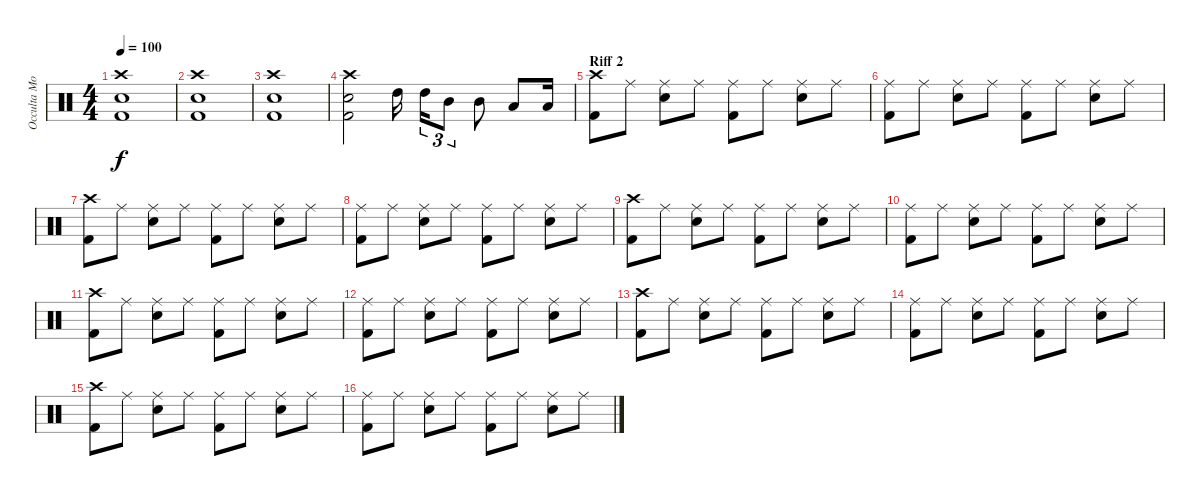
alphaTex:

\track ("Occulta Mors (Drums)" "Occulta Mo") {instrument percussion}
\staff {score}
\articulation defaults
\ts (4 4)
\tempo 100
\clef neutral
\ks c
("Crash high (hit)" "Snare (hit) 2" "Kick (hit) 2").1{dy f} |
("Crash high (hit)" "Snare (hit) 2" "Kick (hit) 2").1 |
("Crash high (hit)" "Snare (hit) 2" "Kick (hit) 2").1 |
("Crash high (hit)" "Snare (hit) 2" "Kick (hit) 2").2 "High Tom (hit)".16 "High Tom (hit)".16{tu (3 2)} "Mid Tom (hit)".8{tu (3 2)} "Mid Tom (hit)".8 "Low Tom (hit)".8 "Low Tom (hit)".16 |
\section ("" "Riff 2")
("Crash high (hit)" "Kick (hit) 2").8 "Ride (middle)".8 ("Ride (middle)" "Snare (hit) 2").8 "Ride (middle)".8 ("Ride (middle)" "Kick (hit) 2").8 "Ride (middle)".8 ("Ride (middle)" "Snare (hit) 2").8 "Ride (middle)".8 |
("Ride (middle)" "Kick (hit) 2").8 "Ride (middle)".8 ("Ride (middle)" "Snare (hit) 2").8 "Ride (middle)".8 ("Ride (middle)" "Kick (hit) 2").8 "Ride (middle)".8 ("Ride (middle)" "Snare (hit) 2").8 "Ride (middle)".8 |
("Crash high (hit)" "Kick (hit) 2").8 "Ride (middle)".8 ("Ride (middle)" "Snare (hit) 2").8 "Ride (middle)".8 ("Ride (middle)" "Kick (hit) 2").8 "Ride (middle)".8 ("Ride (middle)" "Snare (hit) 2").8 "Ride (middle)".8 |
("Ride (middle)" "Kick (hit) 2").8 "Ride (middle)".8 ("Ride (middle)" "Snare (hit) 2").8 "Ride (middle)".8 ("Ride (middle)" "Kick (hit) 2").8 "Ride (middle)".8 ("Ride (middle)" "Snare (hit) 2").8 "Ride (middle)".8 |
("Crash high (hit)" "Kick (hit) 2").8 "Ride (middle)".8 ("Ride (middle)" "Snare (hit) 2").8 "Ride (middle)".8 ("Ride (middle)" "Kick (hit) 2").8 "Ride (middle)".8 ("Ride (middle)" "Snare (hit) 2").8 "Ride (middle)".8 |
("Ride (middle)" "Kick (hit) 2").8 "Ride (middle)".8 ("Ride (middle)" "Snare (hit) 2").8 "Ride (middle)".8 ("Ride (middle)" "Kick (hit) 2").8 "Ride (middle)".8 ("Ride (middle)" "Snare (hit) 2").8 "Ride (middle)".8 |
("Crash high (hit)" "Kick (hit) 2").8 "Ride (middle)".8 ("Ride (middle)" "Snare (hit) 2").8 "Ride (middle)".8 ("Ride (middle)" "Kick (hit) 2").8 "Ride (middle)".8 ("Ride (middle)" "Snare (hit) 2").8 "Ride (middle)".8 |
("Ride (middle)" "Kick (hit) 2").8 "Ride (middle)".8 ("Ride (middle)" "Snare (hit) 2").8 "Ride (middle)".8 ("Ride (middle)" "Kick (hit) 2").8 "Ride (middle)".8 ("Ride (middle)" "Snare (hit) 2").8 "Ride (middle)".8 |
("Crash high (hit)" "Kick (hit) 2").8 "Ride (middle)".8 ("Ride (middle)" "Snare (hit) 2").8 "Ride (middle)".8 ("Ride (middle)" "Kick (hit) 2").8 "Ride (middle)".8 ("Ride (middle)" "Snare (hit) 2").8 "Ride (middle)".8 |
("Ride (middle)" "Kick (hit) 2").8 "Ride (middle)".8 ("Ride (middle)" "Snare (hit) 2").8 "Ride (middle)".8 ("Ride (middle)" "Kick (hit) 2").8 "Ride (middle)".8 ("Ride (middle)" "Snare (hit) 2").8 "Ride (middle)".8 |
("Crash high (hit)" "Kick (hit) 2").8 "Ride (middle)".8 ("Ride (middle)" "Snare (hit) 2").8 "Ride (middle)".8 ("Ride (middle)" "Kick (hit) 2").8 "Ride (middle)".8 ("Ride (middle)" "Snare (hit) 2").8 "Ride (middle)".8 |
("Ride (middle)" "Kick (hit) 2").8 "Ride (middle)".8 ("Ride (middle)" "Snare (hit) 2").8 "Ride (middle)".8 ("Ride (middle)" "Kick (hit) 2").8 "Ride (middle)".8 ("Ride (middle)" "Snare (hit) 2").8 "Ride (middle)".8
